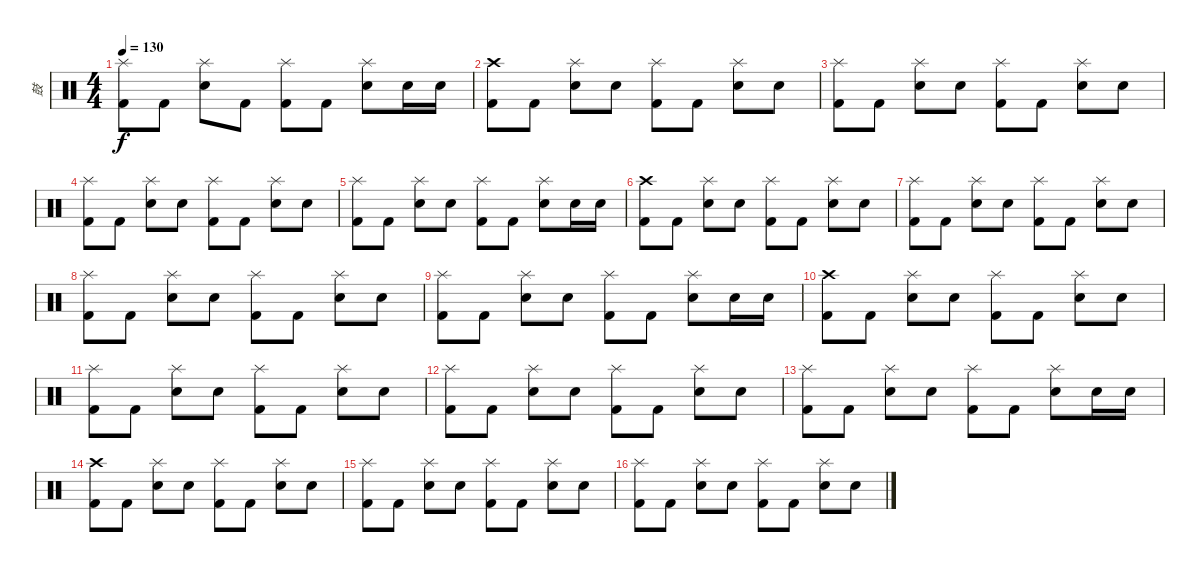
\track ("鼓" "鼓") {instrument percussion}
\staff {score}
\articulation defaults
\ts (4 4)
\tempo 130
\clef neutral
\ks c
("Splash (hit)" "Kick (hit) 2").8{dy f} "Kick (hit) 2".8 ("Splash (hit)" "Electric Snare (hit)").8 "Kick (hit) 2".8 ("Splash (hit)" "Kick (hit) 2").8 "Kick (hit) 2".8 ("Splash (hit)" "Electric Snare (hit)").8 "Electric Snare (hit)".16 "Electric Snare (hit)".16 |
("Crash high (hit)" "Kick (hit) 2").8 "Kick (hit) 2".8 ("Splash (hit)" "Electric Snare (hit)").8 "Electric Snare (hit)".8 ("Splash (hit)" "Kick (hit) 2").8 "Kick (hit) 2".8 ("Splash (hit)" "Electric Snare (hit)").8 "Electric Snare (hit)".8 |
("Splash (hit)" "Kick (hit) 2").8 "Kick (hit) 2".8 ("Splash (hit)" "Electric Snare (hit)").8 "Electric Snare (hit)".8 ("Splash (hit)" "Kick (hit) 2").8 "Kick (hit) 2".8 ("Splash (hit)" "Electric Snare (hit)").8 "Electric Snare (hit)".8 |
("Splash (hit)" "Kick (hit) 2").8 "Kick (hit) 2".8 ("Splash (hit)" "Electric Snare (hit)").8 "Electric Snare (hit)".8 ("Splash (hit)" "Kick (hit) 2").8 "Kick (hit) 2".8 ("Splash (hit)" "Electric Snare (hit)").8 "Electric Snare (hit)".8 |
("Splash (hit)" "Kick (hit) 2").8 "Kick (hit) 2".8 ("Splash (hit)" "Electric Snare (hit)").8 "Electric Snare (hit)".8 ("Splash (hit)" "Kick (hit) 2").8 "Kick (hit) 2".8 ("Splash (hit)" "Electric Snare (hit)").8 "Electric Snare (hit)".16 "Electric Snare (hit)".16 |
("Crash high (hit)" "Kick (hit) 2").8 "Kick (hit) 2".8 ("Splash (hit)" "Electric Snare (hit)").8 "Electric Snare (hit)".8 ("Splash (hit)" "Kick (hit) 2").8 "Kick (hit) 2".8 ("Splash (hit)" "Electric Snare (hit)").8 "Electric Snare (hit)".8 |
("Splash (hit)" "Kick (hit) 2").8 "Kick (hit) 2".8 ("Splash (hit)" "Electric Snare (hit)").8 "Electric Snare (hit)".8 ("Splash (hit)" "Kick (hit) 2").8 "Kick (hit) 2".8 ("Splash (hit)" "Electric Snare (hit)").8 "Electric Snare (hit)".8 |
("Splash (hit)" "Kick (hit) 2").8 "Kick (hit) 2".8 ("Splash (hit)" "Electric Snare (hit)").8 "Electric Snare (hit)".8 ("Splash (hit)" "Kick (hit) 2").8 "Kick (hit) 2".8 ("Splash (hit)" "Electric Snare (hit)").8 "Electric Snare (hit)".8 |
("Splash (hit)" "Kick (hit) 2").8 "Kick (hit) 2".8 ("Splash (hit)" "Electric Snare (hit)").8 "Electric Snare (hit)".8 ("Splash (hit)" "Kick (hit) 2").8 "Kick (hit) 2".8 ("Splash (hit)" "Electric Snare (hit)").8 "Electric Snare (hit)".16 "Electric Snare (hit)".16 |
("Crash high (hit)" "Kick (hit) 2").8{volume 14} "Kick (hit) 2".8 ("Splash (hit)" "Electric Snare (hit)").8 "Electric Snare (hit)".8 ("Splash (hit)" "Kick (hit) 2").8 "Kick (hit) 2".8 ("Splash (hit)" "Electric Snare (hit)").8 "Electric Snare (hit)".8 |
("Splash (hit)" "Kick (hit) 2").8 "Kick (hit) 2".8 ("Splash (hit)" "Electric Snare (hit)").8 "Electric Snare (hit)".8 ("Splash (hit)" "Kick (hit) 2").8 "Kick (hit) 2".8 ("Splash (hit)" "Electric Snare (hit)").8 "Electric Snare (hit)".8 |
("Splash (hit)" "Kick (hit) 2").8 "Kick (hit) 2".8 ("Splash (hit)" "Electric Snare (hit)").8 "Electric Snare (hit)".8 ("Splash (hit)" "Kick (hit) 2").8 "Kick (hit) 2".8 ("Splash (hit)" "Electric Snare (hit)").8 "Electric Snare (hit)".8 |
("Splash (hit)" "Kick (hit) 2").8 "Kick (hit) 2".8 ("Splash (hit)" "Electric Snare (hit)").8 "Electric Snare (hit)".8 ("Splash (hit)" "Kick (hit) 2").8 "Kick (hit) 2".8 ("Splash (hit)" "Electric Snare (hit)").8 "Electric Snare (hit)".16 "Electric Snare (hit)".16 |
("Crash high (hit)" "Kick (hit) 2").8{volume 12} "Kick (hit) 2".8 ("Splash (hit)" "Electric Snare (hit)").8 "Electric Snare (hit)".8 ("Splash (hit)" "Kick (hit) 2").8 "Kick (hit) 2".8 ("Splash (hit)" "Electric Snare (hit)").8 "Electric Snare (hit)".8 |
("Splash (hit)" "Kick (hit) 2").8 "Kick (hit) 2".8 ("Splash (hit)" "Electric Snare (hit)").8 "Electric Snare (hit)".8 ("Splash (hit)" "Kick (hit) 2").8 "Kick (hit) 2".8 ("Splash (hit)" "Electric Snare (hit)").8 "Electric Snare (hit)".8 |
("Splash (hit)" "Kick (hit) 2").8 "Kick (hit) 2".8 ("Splash (hit)" "Electric Snare (hit)").8 "Electric Snare (hit)".8 ("Splash (hit)" "Kick (hit) 2").8 "Kick (hit) 2".8 ("Splash (hit)" "Electric Snare (hit)").8 "Electric Snare (hit)".8
